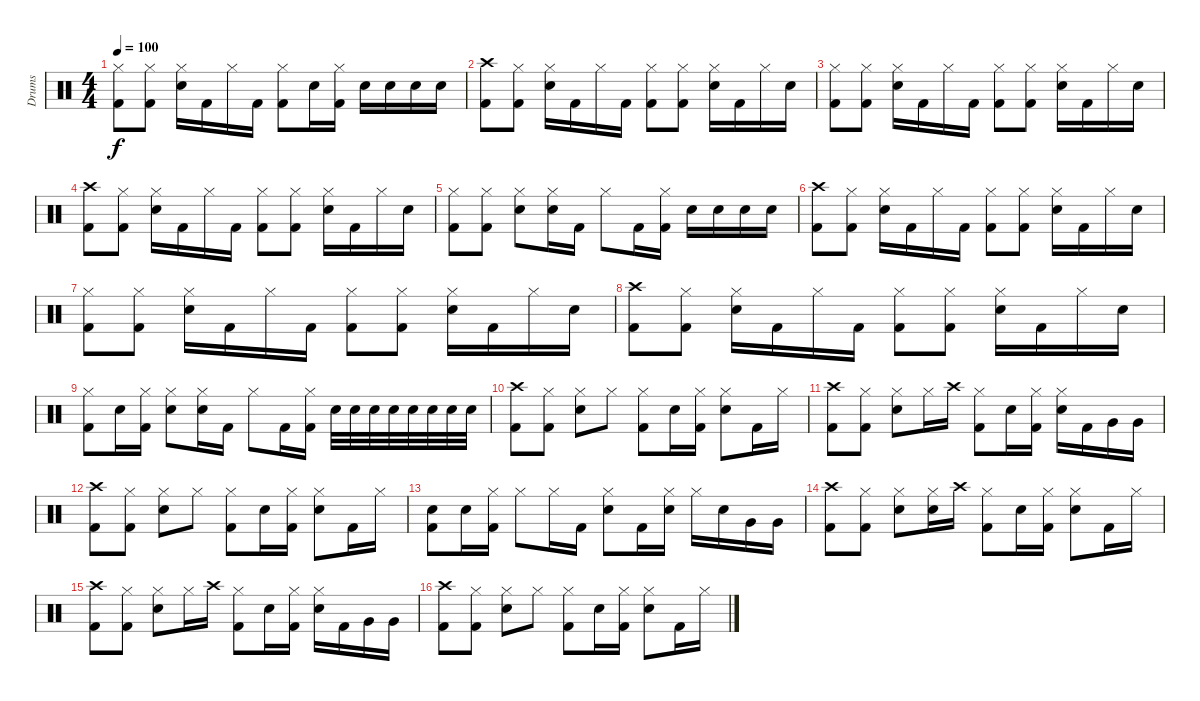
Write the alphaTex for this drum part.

\track ("Drums" "Drums") {instrument percussion}
\staff {score}
\articulation defaults
\ts (4 4)
\tempo 100
\clef neutral
\ks c
("Hi-Hat (closed)" "Kick (hit) 2").8{dy f} ("Hi-Hat (closed)" "Kick (hit) 2").8 ("Hi-Hat (closed)" "Snare (hit) 2").16 "Kick (hit) 2".16 "Hi-Hat (closed)".16 "Kick (hit) 2".16 ("Hi-Hat (closed)" "Kick (hit) 2").8 "Snare (hit) 2".16 ("Hi-Hat (closed)" "Kick (hit) 2").16 "Snare (hit) 2".16 "Snare (hit) 2".16 "Snare (hit) 2".16 "Snare (hit) 2".16 |
("Crash high (hit)" "Kick (hit) 2").8 ("Hi-Hat (closed)" "Kick (hit) 2").8 ("Hi-Hat (closed)" "Snare (hit) 2").16 "Kick (hit) 2".16 "Hi-Hat (closed)".16 "Kick (hit) 2".16 ("Hi-Hat (closed)" "Kick (hit) 2").8 ("Hi-Hat (closed)" "Kick (hit) 2").8 ("Hi-Hat (closed)" "Snare (hit) 2").16 "Kick (hit) 2".16 "Hi-Hat (closed)".16 "Snare (hit) 2".16 |
("Hi-Hat (closed)" "Kick (hit) 2").8 ("Hi-Hat (closed)" "Kick (hit) 2").8 ("Hi-Hat (closed)" "Snare (hit) 2").16 "Kick (hit) 2".16 "Hi-Hat (closed)".16 "Kick (hit) 2".16 ("Hi-Hat (closed)" "Kick (hit) 2").8 ("Hi-Hat (closed)" "Kick (hit) 2").8 ("Hi-Hat (closed)" "Snare (hit) 2").16 "Kick (hit) 2".16 "Hi-Hat (closed)".16 "Snare (hit) 2".16 |
("Crash high (hit)" "Kick (hit) 2").8 ("Hi-Hat (closed)" "Kick (hit) 2").8 ("Hi-Hat (closed)" "Snare (hit) 2").16 "Kick (hit) 2".16 "Hi-Hat (closed)".16 "Kick (hit) 2".16 ("Hi-Hat (closed)" "Kick (hit) 2").8 ("Hi-Hat (closed)" "Kick (hit) 2").8 ("Hi-Hat (closed)" "Snare (hit) 2").16 "Kick (hit) 2".16 "Hi-Hat (closed)".16 "Snare (hit) 2".16 |
("Hi-Hat (closed)" "Kick (hit) 2").8 ("Hi-Hat (closed)" "Kick (hit) 2").8 ("Hi-Hat (closed)" "Snare (hit) 2").8 ("Hi-Hat (closed)" "Snare (hit) 2").16 "Kick (hit) 2".16 "Hi-Hat (closed)".8 "Kick (hit) 2".16 ("Hi-Hat (closed)" "Kick (hit) 2").16 "Electric Snare (hit)".16 "Electric Snare (hit)".16 "Electric Snare (hit)".16 "Electric Snare (hit)".16 |
("Crash high (hit)" "Kick (hit) 2").8 ("Hi-Hat (closed)" "Kick (hit) 2").8 ("Hi-Hat (closed)" "Snare (hit) 2").16 "Kick (hit) 2".16 "Hi-Hat (closed)".16 "Kick (hit) 2".16 ("Hi-Hat (closed)" "Kick (hit) 2").8 ("Hi-Hat (closed)" "Kick (hit) 2").8 ("Hi-Hat (closed)" "Snare (hit) 2").16 "Kick (hit) 2".16 "Hi-Hat (closed)".16 "Snare (hit) 2".16 |
("Hi-Hat (closed)" "Kick (hit) 2").8 ("Hi-Hat (closed)" "Kick (hit) 2").8 ("Hi-Hat (closed)" "Snare (hit) 2").16 "Kick (hit) 2".16 "Hi-Hat (closed)".16 "Kick (hit) 2".16 ("Hi-Hat (closed)" "Kick (hit) 2").8 ("Hi-Hat (closed)" "Kick (hit) 2").8 ("Hi-Hat (closed)" "Snare (hit) 2").16 "Kick (hit) 2".16 "Hi-Hat (closed)".16 "Snare (hit) 2".16 |
("Crash high (hit)" "Kick (hit) 2").8 ("Hi-Hat (closed)" "Kick (hit) 2").8 ("Hi-Hat (closed)" "Snare (hit) 2").16 "Kick (hit) 2".16 "Hi-Hat (closed)".16 "Kick (hit) 2".16 ("Hi-Hat (closed)" "Kick (hit) 2").8 ("Hi-Hat (closed)" "Kick (hit) 2").8 ("Hi-Hat (closed)" "Snare (hit) 2").16 "Kick (hit) 2".16 "Hi-Hat (closed)".16 "Snare (hit) 2".16 |
("Hi-Hat (closed)" "Kick (hit) 2").8 "Snare (hit) 2".16 ("Hi-Hat (closed)" "Kick (hit) 2").16 ("Hi-Hat (closed)" "Snare (hit) 2").8 ("Hi-Hat (closed)" "Snare (hit) 2").16 "Kick (hit) 2".16 "Hi-Hat (closed)".8 "Kick (hit) 2".16 ("Hi-Hat (closed)" "Kick (hit) 2").16 "Electric Snare (hit)".32 "Electric Snare (hit)".32 "Electric Snare (hit)".32 "Electric Snare (hit)".32 "Electric Snare (hit)".32 "Electric Snare (hit)".32 "Electric Snare (hit)".32 "Electric Snare (hit)".32 |
("Crash high (hit)" "Kick (hit) 2").8 ("Hi-Hat (closed)" "Kick (hit) 2").8 ("Hi-Hat (closed)" "Snare (hit) 2").8 "Hi-Hat (closed)".8 ("Hi-Hat (closed)" "Kick (hit) 2").8 "Snare (hit) 2".16 ("Hi-Hat (closed)" "Kick (hit) 2").16 ("Hi-Hat (closed)" "Snare (hit) 2").8 "Kick (hit) 2".16 "Hi-Hat (closed)".16 |
("Crash high (hit)" "Kick (hit) 2").8 ("Hi-Hat (closed)" "Kick (hit) 2").8 ("Hi-Hat (closed)" "Snare (hit) 2").8 "Hi-Hat (closed)".16 "Crash high (hit)".16 ("Hi-Hat (closed)" "Kick (hit) 2").8 "Snare (hit) 2".16 ("Hi-Hat (closed)" "Kick (hit) 2").16 ("Hi-Hat (closed)" "Snare (hit) 2").16 "Kick (hit) 2".16 "Very Low Tom (hit)".16 "Very Low Tom (hit)".16 |
("Crash high (hit)" "Kick (hit) 2").8 ("Hi-Hat (closed)" "Kick (hit) 2").8 ("Hi-Hat (closed)" "Snare (hit) 2").8 "Hi-Hat (closed)".8 ("Hi-Hat (closed)" "Kick (hit) 2").8 "Snare (hit) 2".16 ("Hi-Hat (closed)" "Kick (hit) 2").16 ("Hi-Hat (closed)" "Snare (hit) 2").8 "Kick (hit) 2".16 "Hi-Hat (closed)".16 |
("Snare (hit) 2" "Kick (hit) 2").8 "Snare (hit) 2".16 ("Hi-Hat (closed)" "Kick (hit) 2").16 "Hi-Hat (closed)".8 "Hi-Hat (closed)".16 "Kick (hit) 2".16 ("Hi-Hat (closed)" "Snare (hit) 2").8 "Kick (hit) 2".16 ("Hi-Hat (closed)" "Snare (hit) 2").16 "Hi-Hat (closed)".16 "Snare (hit) 2".16 "Very Low Tom (hit)".16 "Very Low Tom (hit)".16 |
("Crash high (hit)" "Kick (hit) 2").8 ("Hi-Hat (closed)" "Kick (hit) 2").8 ("Hi-Hat (closed)" "Snare (hit) 2").8 ("Hi-Hat (closed)" "Snare (hit) 2").16 "Crash high (hit)".16 ("Hi-Hat (closed)" "Kick (hit) 2").8 "Snare (hit) 2".16 ("Hi-Hat (closed)" "Kick (hit) 2").16 ("Hi-Hat (closed)" "Snare (hit) 2").8 "Kick (hit) 2".16 "Hi-Hat (closed)".16 |
("Crash high (hit)" "Kick (hit) 2").8 ("Hi-Hat (closed)" "Kick (hit) 2").8 ("Hi-Hat (closed)" "Snare (hit) 2").8 "Hi-Hat (closed)".16 "Crash high (hit)".16 ("Hi-Hat (closed)" "Kick (hit) 2").8 "Snare (hit) 2".16 ("Hi-Hat (closed)" "Kick (hit) 2").16 ("Hi-Hat (closed)" "Snare (hit) 2").16 "Kick (hit) 2".16 "Very Low Tom (hit)".16 "Very Low Tom (hit)".16 |
("Crash high (hit)" "Kick (hit) 2").8 ("Hi-Hat (closed)" "Kick (hit) 2").8 ("Hi-Hat (closed)" "Snare (hit) 2").8 "Hi-Hat (closed)".8 ("Hi-Hat (closed)" "Kick (hit) 2").8 "Snare (hit) 2".16 ("Hi-Hat (closed)" "Kick (hit) 2").16 ("Hi-Hat (closed)" "Snare (hit) 2").8 "Kick (hit) 2".16 "Hi-Hat (closed)".16
